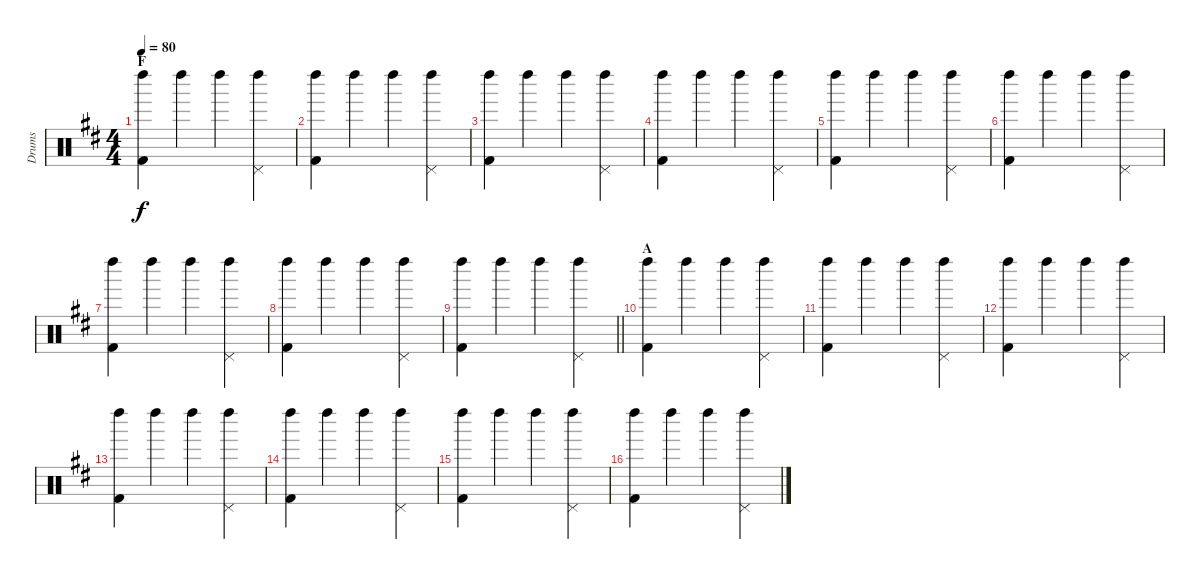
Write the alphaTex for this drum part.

\track ("Drums" "Drums") {instrument percussion}
\staff {score}
\articulation defaults
\ts (4 4)
\section ("" "F")
\tempo 80
\clef neutral
\ks d
("Left Maraca (hit)" "Kick (hit) 2").4{dy f} "Left Maraca (hit)".4 "Left Maraca (hit)".4 ("Left Maraca (hit)" "Pedal Hi-Hat (hit)").4 |
("Left Maraca (hit)" "Kick (hit) 2").4 "Left Maraca (hit)".4 "Left Maraca (hit)".4 ("Left Maraca (hit)" "Pedal Hi-Hat (hit)").4 |
("Left Maraca (hit)" "Kick (hit) 2").4 "Left Maraca (hit)".4 "Left Maraca (hit)".4 ("Left Maraca (hit)" "Pedal Hi-Hat (hit)").4 |
("Left Maraca (hit)" "Kick (hit) 2").4 "Left Maraca (hit)".4 "Left Maraca (hit)".4 ("Left Maraca (hit)" "Pedal Hi-Hat (hit)").4 |
("Left Maraca (hit)" "Kick (hit) 2").4 "Left Maraca (hit)".4 "Left Maraca (hit)".4 ("Left Maraca (hit)" "Pedal Hi-Hat (hit)").4 |
("Left Maraca (hit)" "Kick (hit) 2").4 "Left Maraca (hit)".4 "Left Maraca (hit)".4 ("Left Maraca (hit)" "Pedal Hi-Hat (hit)").4 |
("Left Maraca (hit)" "Kick (hit) 2").4 "Left Maraca (hit)".4 "Left Maraca (hit)".4 ("Left Maraca (hit)" "Pedal Hi-Hat (hit)").4 |
("Left Maraca (hit)" "Kick (hit) 2").4 "Left Maraca (hit)".4 "Left Maraca (hit)".4 ("Left Maraca (hit)" "Pedal Hi-Hat (hit)").4 |
\barLineRight lightlight
("Left Maraca (hit)" "Kick (hit) 2").4 "Left Maraca (hit)".4 "Left Maraca (hit)".4 ("Left Maraca (hit)" "Pedal Hi-Hat (hit)").4 |
\section ("" "A")
("Left Maraca (hit)" "Kick (hit) 2").4 "Left Maraca (hit)".4 "Left Maraca (hit)".4 ("Left Maraca (hit)" "Pedal Hi-Hat (hit)").4 |
("Left Maraca (hit)" "Kick (hit) 2").4 "Left Maraca (hit)".4 "Left Maraca (hit)".4 ("Left Maraca (hit)" "Pedal Hi-Hat (hit)").4 |
("Left Maraca (hit)" "Kick (hit) 2").4 "Left Maraca (hit)".4 "Left Maraca (hit)".4 ("Left Maraca (hit)" "Pedal Hi-Hat (hit)").4 |
("Left Maraca (hit)" "Kick (hit) 2").4 "Left Maraca (hit)".4 "Left Maraca (hit)".4 ("Left Maraca (hit)" "Pedal Hi-Hat (hit)").4 |
("Left Maraca (hit)" "Kick (hit) 2").4 "Left Maraca (hit)".4 "Left Maraca (hit)".4 ("Left Maraca (hit)" "Pedal Hi-Hat (hit)").4 |
("Left Maraca (hit)" "Kick (hit) 2").4 "Left Maraca (hit)".4 "Left Maraca (hit)".4 ("Left Maraca (hit)" "Pedal Hi-Hat (hit)").4 |
("Left Maraca (hit)" "Kick (hit) 2").4 "Left Maraca (hit)".4 "Left Maraca (hit)".4 ("Left Maraca (hit)" "Pedal Hi-Hat (hit)").4
